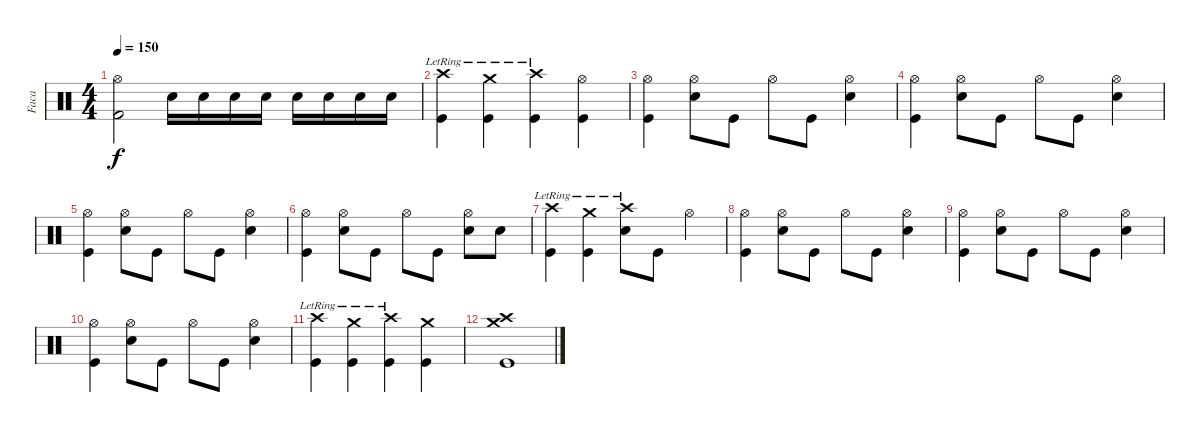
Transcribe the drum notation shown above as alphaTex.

\track ("Faca" "Faca") {instrument percussion}
\staff {score}
\articulation defaults
\ts (4 4)
\tempo 150
\clef neutral
\ks c
("Hi-Hat (open)" "Kick (hit) 2").2{dy f} "Snare (hit) 2".16 "Snare (hit) 2".16 "Snare (hit) 2".16 "Snare (hit) 2".16 "Snare (hit) 2".16 "Snare (hit) 2".16 "Snare (hit) 2".16 "Snare (hit) 2".16 |
("Crash high (hit)"{lr} "Kick (hit)").4 ("Crash medium (hit)"{lr} "Kick (hit)").4 ("Crash high (hit)"{lr} "Kick (hit)").4 ("Hi-Hat (open)" "Kick (hit)").4 |
("Hi-Hat (open)" "Kick (hit)").4 ("Hi-Hat (open)" "Snare (hit) 2").8 "Kick (hit)".8 "Hi-Hat (open)".8 "Kick (hit)".8 ("Hi-Hat (open)" "Snare (hit) 2").4 |
("Hi-Hat (open)" "Kick (hit)").4 ("Hi-Hat (open)" "Snare (hit) 2").8 "Kick (hit)".8 "Hi-Hat (open)".8 "Kick (hit)".8 ("Hi-Hat (open)" "Snare (hit) 2").4 |
("Hi-Hat (open)" "Kick (hit)").4 ("Hi-Hat (open)" "Snare (hit) 2").8 "Kick (hit)".8 "Hi-Hat (open)".8 "Kick (hit)".8 ("Hi-Hat (open)" "Snare (hit) 2").4 |
("Hi-Hat (open)" "Kick (hit)").4 ("Hi-Hat (open)" "Snare (hit) 2").8 "Kick (hit)".8 "Hi-Hat (open)".8 "Kick (hit)".8 ("Hi-Hat (open)" "Snare (hit) 2").8 "Snare (hit) 2".8 |
("Crash high (hit)"{lr} "Kick (hit)").4 ("Crash medium (hit)"{lr} "Kick (hit)").4 ("Crash high (hit)"{lr} "Snare (hit) 2").8 "Kick (hit)".8 "Hi-Hat (open)".4 |
("Hi-Hat (open)" "Kick (hit)").4 ("Hi-Hat (open)" "Snare (hit) 2").8 "Kick (hit)".8 "Hi-Hat (open)".8 "Kick (hit)".8 ("Hi-Hat (open)" "Snare (hit) 2").4 |
("Hi-Hat (open)" "Kick (hit)").4 ("Hi-Hat (open)" "Snare (hit) 2").8 "Kick (hit)".8 "Hi-Hat (open)".8 "Kick (hit)".8 ("Hi-Hat (open)" "Snare (hit) 2").4 |
("Hi-Hat (open)" "Kick (hit)").4 ("Hi-Hat (open)" "Snare (hit) 2").8 "Kick (hit)".8 "Hi-Hat (open)".8 "Kick (hit)".8 ("Hi-Hat (open)" "Snare (hit) 2").4 |
("Crash high (hit)"{lr} "Kick (hit)").4 ("Crash medium (hit)"{lr} "Kick (hit)").4 ("Crash high (hit)"{lr} "Kick (hit)").4 ("Crash medium (hit)" "Kick (hit)").4 |
("Crash high (hit)" "Crash medium (hit)" "Kick (hit)").1
